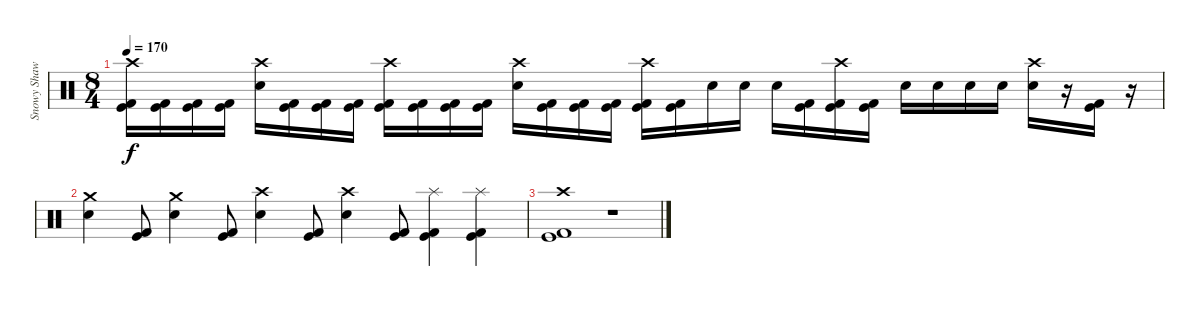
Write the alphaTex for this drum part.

\track ("Snowy Shaw" "Snowy Shaw") {instrument percussion}
\staff {score}
\articulation defaults
\ts (8 4)
\tempo 170
\clef neutral
\ks c
("Crash high (hit)" "Kick (hit)" "Kick (hit) 2").16{dy f} ("Kick (hit)" "Kick (hit) 2").16 ("Kick (hit)" "Kick (hit) 2").16 ("Kick (hit)" "Kick (hit) 2").16 ("Crash high (hit)" "Electric Snare (hit)").16 ("Kick (hit)" "Kick (hit) 2").16 ("Kick (hit)" "Kick (hit) 2").16 ("Kick (hit)" "Kick (hit) 2").16 ("Crash high (hit)" "Kick (hit)" "Kick (hit) 2").16 ("Kick (hit)" "Kick (hit) 2").16 ("Kick (hit)" "Kick (hit) 2").16 ("Kick (hit)" "Kick (hit) 2").16 ("Crash high (hit)" "Electric Snare (hit)").16 ("Kick (hit)" "Kick (hit) 2").16 ("Kick (hit)" "Kick (hit) 2").16 ("Kick (hit)" "Kick (hit) 2").16 ("Crash high (hit)" "Kick (hit)" "Kick (hit) 2").16 ("Kick (hit)" "Kick (hit) 2").16 "Electric Snare (hit)".16 "Electric Snare (hit)".16 "Electric Snare (hit)".16 ("Kick (hit)" "Kick (hit) 2").16 ("Crash high (hit)" "Kick (hit)" "Kick (hit) 2").16 ("Kick (hit)" "Kick (hit) 2").16 "Electric Snare (hit)".16 "Electric Snare (hit)".16 "Electric Snare (hit)".16 "Electric Snare (hit)".16 ("Crash high (hit)" "Electric Snare (hit)").16 r.16 ("Kick (hit)" "Kick (hit) 2").16 r.16 |
("Crash medium (hit)" "Electric Snare (hit)").4 ("Kick (hit)" "Kick (hit) 2").8 ("Crash medium (hit)" "Electric Snare (hit)").4 ("Kick (hit)" "Kick (hit) 2").8 ("Crash high (hit)" "Electric Snare (hit)").4 ("Kick (hit)" "Kick (hit) 2").8 ("Crash high (hit)" "Electric Snare (hit)").4 ("Kick (hit)" "Kick (hit) 2").8 ("Splash (hit)" "Kick (hit)" "Kick (hit) 2").4 ("Splash (hit)" "Kick (hit)" "Kick (hit) 2").4 |
("Crash high (hit)" "Kick (hit)" "Kick (hit) 2").1 r.1
